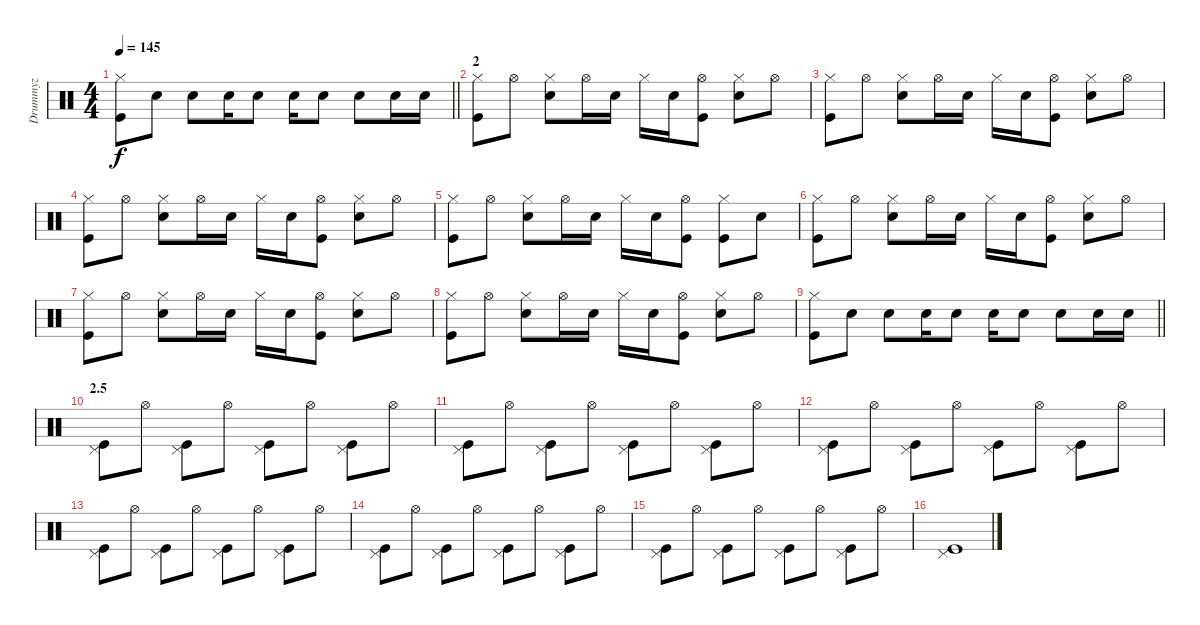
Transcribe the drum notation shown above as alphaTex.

\track ("Drummyz" "Drummyz") {instrument percussion}
\staff {score}
\articulation defaults
\ts (4 4)
\tempo 145
\clef neutral
\barLineRight lightlight
\ks c
("Kick (hit)" "Hi-Hat (closed)").8{dy f} "Snare (hit) 2".8 "Snare (hit) 2".8 "Snare (hit) 2".16 "Snare (hit) 2".8 "Snare (hit) 2".16 "Snare (hit) 2".8 "Snare (hit) 2".8 "Snare (hit) 2".16 "Snare (hit) 2".16 |
\section ("" "2")
("Kick (hit)" "Hi-Hat (closed)").8 "Hi-Hat (open)".8 ("Hi-Hat (closed)" "Snare (hit) 2").8 "Hi-Hat (open)".16 "Snare (hit) 2".16 "Hi-Hat (closed)".16 "Snare (hit) 2".16 ("Kick (hit)" "Hi-Hat (open)").8 ("Snare (hit) 2" "Hi-Hat (closed)").8 "Hi-Hat (open)".8 |
("Kick (hit)" "Hi-Hat (closed)").8 "Hi-Hat (open)".8 ("Hi-Hat (closed)" "Snare (hit) 2").8 "Hi-Hat (open)".16 "Snare (hit) 2".16 "Hi-Hat (closed)".16 "Snare (hit) 2".16 ("Kick (hit)" "Hi-Hat (open)").8 ("Snare (hit) 2" "Hi-Hat (closed)").8 "Hi-Hat (open)".8 |
("Kick (hit)" "Hi-Hat (closed)").8 "Hi-Hat (open)".8 ("Hi-Hat (closed)" "Snare (hit) 2").8 "Hi-Hat (open)".16 "Snare (hit) 2".16 "Hi-Hat (closed)".16 "Snare (hit) 2".16 ("Kick (hit)" "Hi-Hat (open)").8 ("Snare (hit) 2" "Hi-Hat (closed)").8 "Hi-Hat (open)".8 |
("Kick (hit)" "Hi-Hat (closed)").8 "Hi-Hat (open)".8 ("Hi-Hat (closed)" "Snare (hit) 2").8 "Hi-Hat (open)".16 "Snare (hit) 2".16 "Hi-Hat (closed)".16 "Snare (hit) 2".16 ("Kick (hit)" "Hi-Hat (open)").8 ("Kick (hit)" "Hi-Hat (closed)").8 "Snare (hit) 2".8 |
("Kick (hit)" "Hi-Hat (closed)").8 "Hi-Hat (open)".8 ("Hi-Hat (closed)" "Snare (hit) 2").8 "Hi-Hat (open)".16 "Snare (hit) 2".16 "Hi-Hat (closed)".16 "Snare (hit) 2".16 ("Kick (hit)" "Hi-Hat (open)").8 ("Snare (hit) 2" "Hi-Hat (closed)").8 "Hi-Hat (open)".8 |
("Kick (hit)" "Hi-Hat (closed)").8 "Hi-Hat (open)".8 ("Hi-Hat (closed)" "Snare (hit) 2").8 "Hi-Hat (open)".16 "Snare (hit) 2".16 "Hi-Hat (closed)".16 "Snare (hit) 2".16 ("Kick (hit)" "Hi-Hat (open)").8 ("Snare (hit) 2" "Hi-Hat (closed)").8 "Hi-Hat (open)".8 |
("Kick (hit)" "Hi-Hat (closed)").8 "Hi-Hat (open)".8 ("Hi-Hat (closed)" "Snare (hit) 2").8 "Hi-Hat (open)".16 "Snare (hit) 2".16 "Hi-Hat (closed)".16 "Snare (hit) 2".16 ("Kick (hit)" "Hi-Hat (open)").8 ("Snare (hit) 2" "Hi-Hat (closed)").8 "Hi-Hat (open)".8 |
\barLineRight lightlight
("Kick (hit)" "Hi-Hat (closed)").8 "Snare (hit) 2".8 "Snare (hit) 2".8 "Snare (hit) 2".16 "Snare (hit) 2".8 "Snare (hit) 2".16 "Snare (hit) 2".8 "Snare (hit) 2".8 "Snare (hit) 2".16 "Snare (hit) 2".16 |
\section ("" "2.5")
("Kick (hit)" "Pedal Hi-Hat (hit)").8 "Hi-Hat (open)".8 ("Kick (hit)" "Pedal Hi-Hat (hit)").8 "Hi-Hat (open)".8 ("Kick (hit)" "Pedal Hi-Hat (hit)").8 "Hi-Hat (open)".8 ("Kick (hit)" "Pedal Hi-Hat (hit)").8 "Hi-Hat (open)".8 |
("Kick (hit)" "Pedal Hi-Hat (hit)").8 "Hi-Hat (open)".8 ("Kick (hit)" "Pedal Hi-Hat (hit)").8 "Hi-Hat (open)".8 ("Kick (hit)" "Pedal Hi-Hat (hit)").8 "Hi-Hat (open)".8 ("Kick (hit)" "Pedal Hi-Hat (hit)").8 "Hi-Hat (open)".8 |
("Kick (hit)" "Pedal Hi-Hat (hit)").8 "Hi-Hat (open)".8 ("Kick (hit)" "Pedal Hi-Hat (hit)").8 "Hi-Hat (open)".8 ("Kick (hit)" "Pedal Hi-Hat (hit)").8 "Hi-Hat (open)".8 ("Kick (hit)" "Pedal Hi-Hat (hit)").8 "Hi-Hat (open)".8 |
("Kick (hit)" "Pedal Hi-Hat (hit)").8 "Hi-Hat (open)".8 ("Kick (hit)" "Pedal Hi-Hat (hit)").8 "Hi-Hat (open)".8 ("Kick (hit)" "Pedal Hi-Hat (hit)").8 "Hi-Hat (open)".8 ("Kick (hit)" "Pedal Hi-Hat (hit)").8 "Hi-Hat (open)".8 |
("Kick (hit)" "Pedal Hi-Hat (hit)").8 "Hi-Hat (open)".8 ("Kick (hit)" "Pedal Hi-Hat (hit)").8 "Hi-Hat (open)".8 ("Kick (hit)" "Pedal Hi-Hat (hit)").8 "Hi-Hat (open)".8 ("Kick (hit)" "Pedal Hi-Hat (hit)").8 "Hi-Hat (open)".8 |
("Kick (hit)" "Pedal Hi-Hat (hit)").8 "Hi-Hat (open)".8 ("Kick (hit)" "Pedal Hi-Hat (hit)").8 "Hi-Hat (open)".8 ("Kick (hit)" "Pedal Hi-Hat (hit)").8 "Hi-Hat (open)".8 ("Kick (hit)" "Pedal Hi-Hat (hit)").8 "Hi-Hat (open)".8 |
("Kick (hit)" "Pedal Hi-Hat (hit)").1
